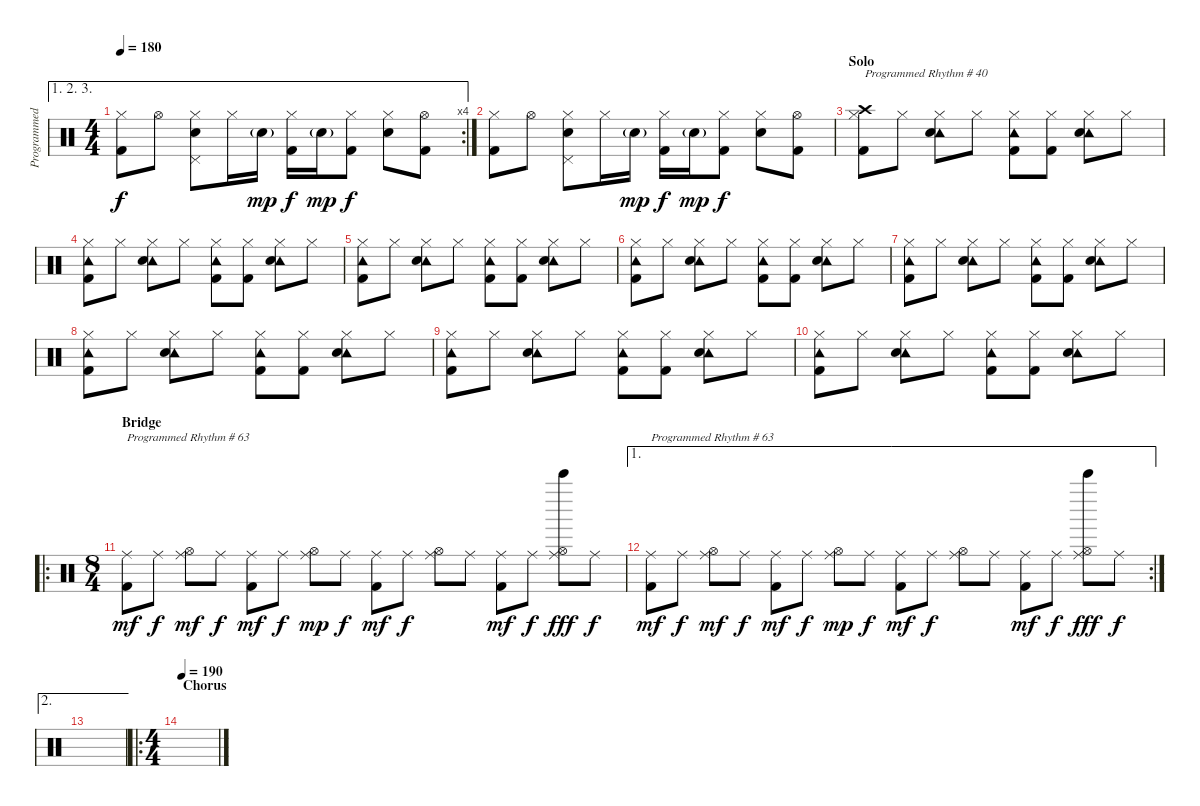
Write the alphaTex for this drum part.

\track ("Programmed Drums" "Programmed") {instrument percussion}
\staff {score}
\articulation defaults
\ae (1 2 3)
\rc 4
\ts (4 4)
\tempo 180
\clef neutral
\ks c
("Hi-Hat (closed)" "Kick (hit) 2").8{dy f} "Hi-Hat (open)".8 ("Hi-Hat (closed)" "Snare (hit) 2" "Pedal Hi-Hat (hit)").8 "Hi-Hat (closed)".16 "Snare (hit) 2"{g}.16{dy mp} ("Hi-Hat (closed)" "Kick (hit) 2").16{dy f} "Snare (hit) 2"{g}.16{dy mp} ("Hi-Hat (closed)" "Kick (hit) 2").8{dy f} ("Hi-Hat (closed)" "Electric Snare (hit)").8 ("Hi-Hat (open)" "Kick (hit) 2").8 |
("Hi-Hat (closed)" "Kick (hit) 2").8 "Hi-Hat (open)".8 ("Hi-Hat (closed)" "Snare (hit) 2" "Pedal Hi-Hat (hit)").8 "Hi-Hat (closed)".16 "Snare (hit) 2"{g}.16{dy mp} ("Hi-Hat (closed)" "Kick (hit) 2").16{dy f} "Snare (hit) 2"{g}.16{dy mp} ("Hi-Hat (closed)" "Kick (hit) 2").8{dy f} ("Hi-Hat (closed)" "Electric Snare (hit)").8 ("Hi-Hat (open)" "Kick (hit) 2").8 |
\section ("" "Solo")
("Crash high (hit)" "Hi-Hat (closed)" "Kick (hit) 2").8{txt "Programmed Rhythm # 40"} "Hi-Hat (closed)".8 ("Tambourine (hit)" "Hi-Hat (closed)" "Snare (hit) 2").8 "Hi-Hat (closed)".8 ("Tambourine (hit)" "Hi-Hat (closed)" "Kick (hit) 2").8 ("Hi-Hat (closed)" "Kick (hit) 2").8 ("Tambourine (hit)" "Hi-Hat (closed)" "Snare (hit) 2").8 "Hi-Hat (closed)".8 |
("Tambourine (hit)" "Hi-Hat (closed)" "Kick (hit) 2").8 "Hi-Hat (closed)".8 ("Tambourine (hit)" "Hi-Hat (closed)" "Snare (hit) 2").8 "Hi-Hat (closed)".8 ("Tambourine (hit)" "Hi-Hat (closed)" "Kick (hit) 2").8 ("Hi-Hat (closed)" "Kick (hit) 2").8 ("Tambourine (hit)" "Hi-Hat (closed)" "Snare (hit) 2").8 "Hi-Hat (closed)".8 |
("Tambourine (hit)" "Hi-Hat (closed)" "Kick (hit) 2").8 "Hi-Hat (closed)".8 ("Tambourine (hit)" "Hi-Hat (closed)" "Snare (hit) 2").8 "Hi-Hat (closed)".8 ("Tambourine (hit)" "Hi-Hat (closed)" "Kick (hit) 2").8 ("Hi-Hat (closed)" "Kick (hit) 2").8 ("Tambourine (hit)" "Hi-Hat (closed)" "Snare (hit) 2").8 "Hi-Hat (closed)".8 |
("Tambourine (hit)" "Hi-Hat (closed)" "Kick (hit) 2").8 "Hi-Hat (closed)".8 ("Tambourine (hit)" "Hi-Hat (closed)" "Snare (hit) 2").8 "Hi-Hat (closed)".8 ("Tambourine (hit)" "Hi-Hat (closed)" "Kick (hit) 2").8 ("Hi-Hat (closed)" "Kick (hit) 2").8 ("Tambourine (hit)" "Hi-Hat (closed)" "Snare (hit) 2").8 "Hi-Hat (closed)".8 |
("Tambourine (hit)" "Hi-Hat (closed)" "Kick (hit) 2").8 "Hi-Hat (closed)".8 ("Tambourine (hit)" "Hi-Hat (closed)" "Snare (hit) 2").8 "Hi-Hat (closed)".8 ("Tambourine (hit)" "Hi-Hat (closed)" "Kick (hit) 2").8 ("Hi-Hat (closed)" "Kick (hit) 2").8 ("Tambourine (hit)" "Hi-Hat (closed)" "Snare (hit) 2").8 "Hi-Hat (closed)".8 |
("Tambourine (hit)" "Hi-Hat (closed)" "Kick (hit) 2").8 "Hi-Hat (closed)".8 ("Tambourine (hit)" "Hi-Hat (closed)" "Snare (hit) 2").8 "Hi-Hat (closed)".8 ("Tambourine (hit)" "Hi-Hat (closed)" "Kick (hit) 2").8 ("Hi-Hat (closed)" "Kick (hit) 2").8 ("Tambourine (hit)" "Hi-Hat (closed)" "Snare (hit) 2").8 "Hi-Hat (closed)".8 |
("Tambourine (hit)" "Hi-Hat (closed)" "Kick (hit) 2").8 "Hi-Hat (closed)".8 ("Tambourine (hit)" "Hi-Hat (closed)" "Snare (hit) 2").8 "Hi-Hat (closed)".8 ("Tambourine (hit)" "Hi-Hat (closed)" "Kick (hit) 2").8 ("Hi-Hat (closed)" "Kick (hit) 2").8 ("Tambourine (hit)" "Hi-Hat (closed)" "Snare (hit) 2").8 "Hi-Hat (closed)".8 |
("Tambourine (hit)" "Hi-Hat (closed)" "Kick (hit) 2").8 "Hi-Hat (closed)".8 ("Tambourine (hit)" "Hi-Hat (closed)" "Snare (hit) 2").8 "Hi-Hat (closed)".8 ("Tambourine (hit)" "Hi-Hat (closed)" "Kick (hit) 2").8 ("Hi-Hat (closed)" "Kick (hit) 2").8 ("Tambourine (hit)" "Hi-Hat (closed)" "Snare (hit) 2").8 "Hi-Hat (closed)".8 |
\ro
\ts (8 4)
\section ("" "Bridge")
("Ride (middle)" "Kick (hit) 2").8{txt "Programmed Rhythm # 63" dy mf} "Ride (middle)".8{dy f} ("Ride (middle)" "Hi-Hat (open)").8{dy mf} "Ride (middle)".8{dy f} ("Ride (middle)" "Kick (hit) 2").8{dy mf} "Ride (middle)".8{dy f} ("Ride (middle)" "Hi-Hat (open)").8{dy mp} "Ride (middle)".8{dy f} ("Ride (middle)" "Kick (hit) 2").8{dy mf} "Ride (middle)".8{dy f} ("Ride (middle)" "Hi-Hat (open)").8 "Ride (middle)".8 ("Ride (middle)" "Kick (hit) 2").8{dy mf} "Ride (middle)".8{dy f} ("Ride (middle)" "Hi-Hat (open)" "Bell Tree (hit)").8{dy fff} "Ride (middle)".8{dy f} |
\ae 1
\rc 2
("Ride (middle)" "Kick (hit) 2").8{txt "Programmed Rhythm # 63" dy mf} "Ride (middle)".8{dy f} ("Ride (middle)" "Hi-Hat (open)").8{dy mf} "Ride (middle)".8{dy f} ("Ride (middle)" "Kick (hit) 2").8{dy mf} "Ride (middle)".8{dy f} ("Ride (middle)" "Hi-Hat (open)").8{dy mp} "Ride (middle)".8{dy f} ("Ride (middle)" "Kick (hit) 2").8{dy mf} "Ride (middle)".8{dy f} ("Ride (middle)" "Hi-Hat (open)").8 "Ride (middle)".8 ("Ride (middle)" "Kick (hit) 2").8{dy mf} "Ride (middle)".8{dy f} ("Ride (middle)" "Hi-Hat (open)" "Bell Tree (hit)").8{dy fff} "Ride (middle)".8{dy f} |
\ae 2
|
\ro
\ts (4 4)
\section ("" "Chorus")
\tempo 190
